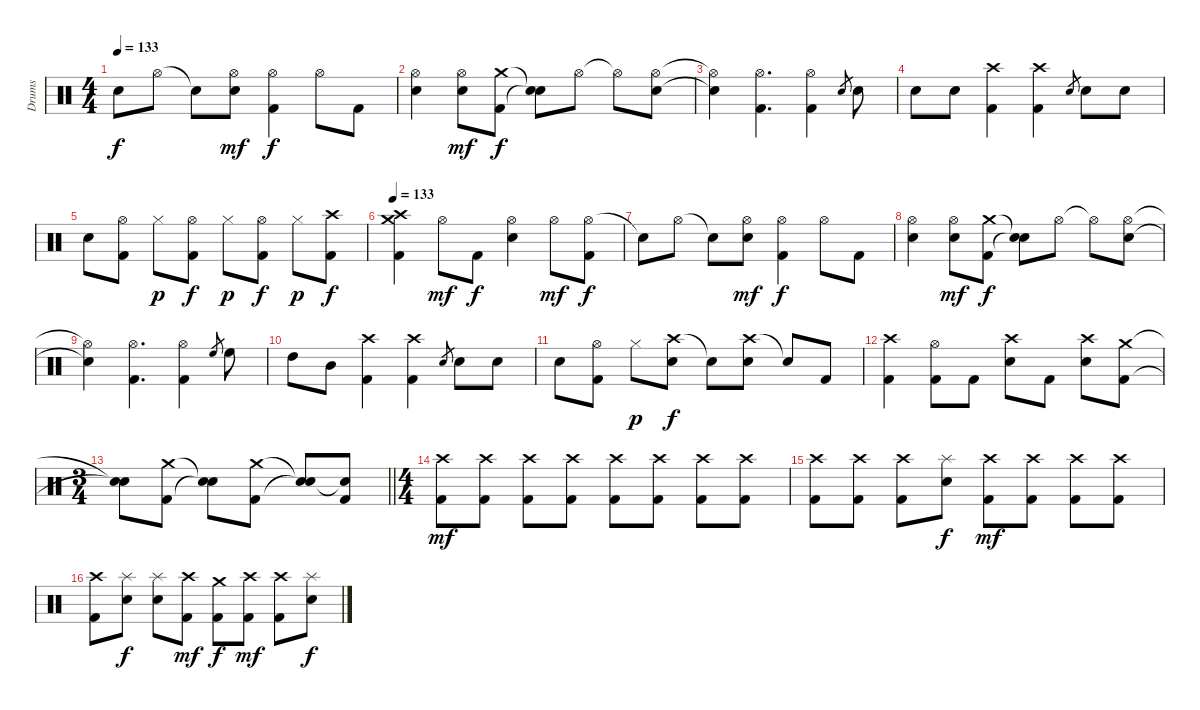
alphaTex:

\track ("Drums" "Drums") {instrument percussion}
\staff {score}
\articulation defaults
\ts (4 4)
\tempo 133
\clef neutral
\ks c "Snare (hit)"{t}.8{dy f} "Hi-Hat (open)".8 "Snare (hit)"{t}.8
("Hi-Hat (open)" "Electric Snare (hit)").8{dy mf} ("Hi-Hat (open)" "Kick (hit) 2").4{dy f} "Hi-Hat (open)".8 "Kick (hit) 2".8 |
("Hi-Hat (open)" "Electric Snare (hit)").4 ("Hi-Hat (open)" "Electric Snare (hit)").8{dy mf} ("Crash medium (hit)" "Kick (hit) 2").8{dy f} ("Snare (hit)"{t} "Snare (hit)"{t}).8 "Hi-Hat (open)".8 "Hi-Hat (open)"{t}.8 ("Hi-Hat (open)" "Electric Snare (hit)").8 |
("Hi-Hat (open)"{t} "Snare (hit)"{t}).4 ("Hi-Hat (open)" "Kick (hit) 2").4{d} ("Hi-Hat (open)" "Kick (hit) 2").4 "Electric Snare (hit)".8{gr} "Electric Snare (hit)".8 |
"Electric Snare (hit)".8 "Electric Snare (hit)".8 ("Crash high (hit)" "Kick (hit) 2").4 ("Crash high (hit)" "Kick (hit) 2").4 "Electric Snare (hit)".8{gr} "Electric Snare (hit)".8 "Electric Snare (hit)".8 |
"Electric Snare (hit)".8 ("Hi-Hat (open)" "Kick (hit) 2").8 "Hi-Hat (closed)".8{dy p} ("Hi-Hat (open)" "Kick (hit) 2").8{dy f} "Hi-Hat (closed)".8{dy p} ("Hi-Hat (open)" "Kick (hit) 2").8{dy f} "Hi-Hat (closed)".8{dy p} ("Crash high (hit)" "Kick (hit) 2").8{dy f} |
\tempo 133
("Crash high (hit)" "Crash medium (hit)" "Kick (hit) 2").4 "Hi-Hat (open)".8{dy mf} "Kick (hit) 2".8{dy f} ("Hi-Hat (open)" "Electric Snare (hit)").4 "Hi-Hat (open)".8{dy mf} ("Hi-Hat (open)" "Kick (hit) 2").8{dy f} |
"Snare (hit)"{t}.8 "Hi-Hat (open)".8 "Snare (hit)"{t}.8 ("Hi-Hat (open)" "Electric Snare (hit)").8{dy mf} ("Hi-Hat (open)" "Kick (hit) 2").4{dy f} "Hi-Hat (open)".8 "Kick (hit) 2".8 |
("Hi-Hat (open)" "Electric Snare (hit)").4 ("Hi-Hat (open)" "Electric Snare (hit)").8{dy mf} ("Crash medium (hit)" "Kick (hit) 2").8{dy f} ("Snare (hit)"{t} "Snare (hit)"{t}).8 "Hi-Hat (open)".8 "Hi-Hat (open)"{t}.8 ("Hi-Hat (open)" "Electric Snare (hit)").8 |
("Hi-Hat (open)"{t} "Snare (hit)"{t}).4 ("Hi-Hat (open)" "Kick (hit) 2").4{d} ("Hi-Hat (open)" "Kick (hit) 2").4 "High Floor Tom (hit)".8{gr} "High Floor Tom (hit)".8 |
"High Tom (hit)".8 "Mid Tom (hit)".8 ("Crash high (hit)" "Kick (hit) 2").4 ("Crash high (hit)" "Kick (hit) 2").4 "Electric Snare (hit)".8{gr} "Electric Snare (hit)".8 "Electric Snare (hit)".8 |
"Electric Snare (hit)".8 ("Hi-Hat (open)" "Kick (hit) 2").8 "Hi-Hat (closed)".8{dy p} ("Crash high (hit)" "Electric Snare (hit)").8{dy f} "Snare (hit)"{t}.8 ("Crash high (hit)" "Electric Snare (hit)").8 "Snare (hit)"{t}.8 "Kick (hit) 2".8 |
("Crash high (hit)" "Kick (hit) 2").4 ("Hi-Hat (open)" "Kick (hit) 2").8 "Kick (hit) 2".8 ("Crash high (hit)" "Electric Snare (hit)").8 "Kick (hit) 2".8 ("Crash high (hit)" "Electric Snare (hit)").8 ("Crash medium (hit)" "Kick (hit) 2").8 |
\ts (3 4)
\barLineRight lightlight
("Snare (hit)"{t} "Snare (hit)"{t}).8 ("Crash medium (hit)" "Kick (hit) 2").8 ("Snare (hit)"{t} "Snare (hit)"{t}).8 ("Crash medium (hit)" "Kick (hit) 2").8 ("Snare (hit)"{t} "Snare (hit)"{t}).8 ("Snare (hit)"{t} "Kick (hit) 2").8 |
\ts (4 4)
("Crash high (hit)" "Kick (hit) 2").8{dy mf} ("Crash high (hit)" "Kick (hit) 2").8 ("Crash high (hit)" "Kick (hit) 2").8 ("Crash high (hit)" "Kick (hit) 2").8 ("Crash high (hit)" "Kick (hit) 2").8 ("Crash high (hit)" "Kick (hit) 2").8 ("Crash high (hit)" "Kick (hit) 2").8 ("Crash high (hit)" "Kick (hit) 2").8 |
("Crash high (hit)" "Kick (hit) 2").8 ("Crash high (hit)" "Kick (hit) 2").8 ("Crash high (hit)" "Kick (hit) 2").8 ("Splash (hit)" "Electric Snare (hit)").8{dy f} ("Crash high (hit)" "Kick (hit) 2").8{dy mf} ("Crash high (hit)" "Kick (hit) 2").8 ("Crash high (hit)" "Kick (hit) 2").8 ("Crash high (hit)" "Kick (hit) 2").8 |
("Crash high (hit)" "Kick (hit) 2").8 ("Splash (hit)" "Electric Snare (hit)").8{dy f} ("Splash (hit)" "Electric Snare (hit)").8 ("Crash high (hit)" "Kick (hit) 2").8{dy mf} ("Crash medium (hit)" "Kick (hit) 2").8{dy f} ("Crash high (hit)" "Kick (hit) 2").8{dy mf} ("Crash high (hit)" "Kick (hit) 2").8 ("Splash (hit)" "Electric Snare (hit)").8{dy f}
